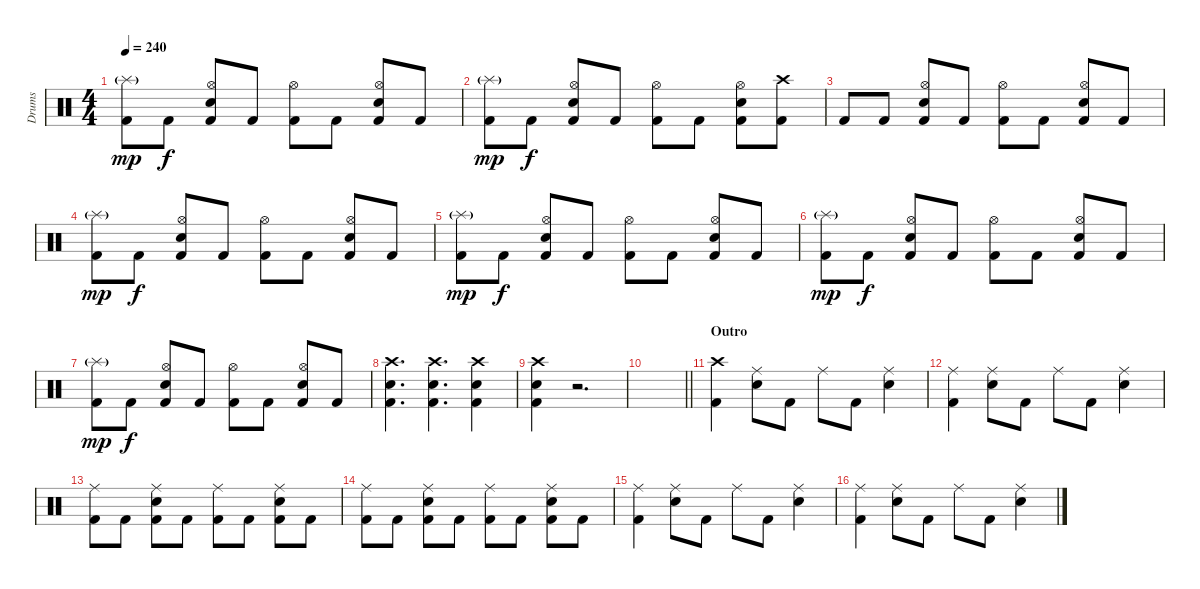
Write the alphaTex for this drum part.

\track ("Drums" "Drums") {instrument percussion}
\staff {score}
\articulation defaults
\ts (4 4)
\tempo 240
\clef neutral
\ks c
("Splash (hit)"{g} "Kick (hit) 2").8{dy mp} "Kick (hit) 2".8{dy f} ("Hi-Hat (open)" "Snare (hit) 2" "Kick (hit) 2").8 "Kick (hit) 2".8 ("Hi-Hat (open)" "Kick (hit) 2").8 "Kick (hit) 2".8 ("Hi-Hat (open)" "Snare (hit) 2" "Kick (hit) 2").8 "Kick (hit) 2".8 |
("Splash (hit)"{g} "Kick (hit) 2").8{dy mp} "Kick (hit) 2".8{dy f} ("Hi-Hat (open)" "Snare (hit) 2" "Kick (hit) 2").8 "Kick (hit) 2".8 ("Hi-Hat (open)" "Kick (hit) 2").8 "Kick (hit) 2".8 ("Hi-Hat (open)" "Snare (hit) 2" "Kick (hit) 2").8 ("Crash high (hit)" "Kick (hit) 2").8 |
"Kick (hit) 2".8 "Kick (hit) 2".8 ("Hi-Hat (open)" "Snare (hit) 2" "Kick (hit) 2").8 "Kick (hit) 2".8 ("Hi-Hat (open)" "Kick (hit) 2").8 "Kick (hit) 2".8 ("Hi-Hat (open)" "Snare (hit) 2" "Kick (hit) 2").8 "Kick (hit) 2".8 |
("Splash (hit)"{g} "Kick (hit) 2").8{dy mp} "Kick (hit) 2".8{dy f} ("Hi-Hat (open)" "Snare (hit) 2" "Kick (hit) 2").8 "Kick (hit) 2".8 ("Hi-Hat (open)" "Kick (hit) 2").8 "Kick (hit) 2".8 ("Hi-Hat (open)" "Snare (hit) 2" "Kick (hit) 2").8 "Kick (hit) 2".8 |
("Splash (hit)"{g} "Kick (hit) 2").8{dy mp} "Kick (hit) 2".8{dy f} ("Hi-Hat (open)" "Snare (hit) 2" "Kick (hit) 2").8 "Kick (hit) 2".8 ("Hi-Hat (open)" "Kick (hit) 2").8 "Kick (hit) 2".8 ("Hi-Hat (open)" "Snare (hit) 2" "Kick (hit) 2").8 "Kick (hit) 2".8 |
("Splash (hit)"{g} "Kick (hit) 2").8{dy mp} "Kick (hit) 2".8{dy f} ("Hi-Hat (open)" "Snare (hit) 2" "Kick (hit) 2").8 "Kick (hit) 2".8 ("Hi-Hat (open)" "Kick (hit) 2").8 "Kick (hit) 2".8 ("Hi-Hat (open)" "Snare (hit) 2" "Kick (hit) 2").8 "Kick (hit) 2".8 |
("Splash (hit)"{g} "Kick (hit) 2").8{dy mp} "Kick (hit) 2".8{dy f} ("Hi-Hat (open)" "Snare (hit) 2" "Kick (hit) 2").8 "Kick (hit) 2".8 ("Hi-Hat (open)" "Kick (hit) 2").8 "Kick (hit) 2".8 ("Hi-Hat (open)" "Snare (hit) 2" "Kick (hit) 2").8 "Kick (hit) 2".8 |
("Crash high (hit)" "Snare (hit) 2" "Kick (hit) 2").4{d} ("Crash high (hit)" "Snare (hit) 2" "Kick (hit) 2").4{d} ("Crash high (hit)" "Snare (hit) 2" "Kick (hit) 2").4 |
("Crash high (hit)" "Snare (hit) 2" "Kick (hit) 2").4 r.2{d} |
\barLineRight lightlight
|
\section ("" "Outro")
("Crash high (hit)" "Kick (hit) 2").4 ("Ride (middle)" "Snare (hit) 2").8 "Kick (hit) 2".8 "Ride (middle)".8 "Kick (hit) 2".8 ("Ride (middle)" "Snare (hit) 2").4 |
("Ride (middle)" "Kick (hit) 2").4 ("Ride (middle)" "Snare (hit) 2").8 "Kick (hit) 2".8 "Ride (middle)".8 "Kick (hit) 2".8 ("Ride (middle)" "Snare (hit) 2").4 |
("Ride (middle)" "Kick (hit) 2").8 "Kick (hit) 2".8 ("Ride (middle)" "Snare (hit) 2" "Kick (hit) 2").8 "Kick (hit) 2".8 ("Ride (middle)" "Kick (hit) 2").8 "Kick (hit) 2".8 ("Ride (middle)" "Snare (hit) 2" "Kick (hit) 2").8 "Kick (hit) 2".8 |
("Ride (middle)" "Kick (hit) 2").8 "Kick (hit) 2".8 ("Ride (middle)" "Snare (hit) 2" "Kick (hit) 2").8 "Kick (hit) 2".8 ("Ride (middle)" "Kick (hit) 2").8 "Kick (hit) 2".8 ("Ride (middle)" "Snare (hit) 2" "Kick (hit) 2").8 "Kick (hit) 2".8 |
("Ride (middle)" "Kick (hit) 2").4 ("Ride (middle)" "Snare (hit) 2").8 "Kick (hit) 2".8 "Ride (middle)".8 "Kick (hit) 2".8 ("Ride (middle)" "Snare (hit) 2").4 |
("Ride (middle)" "Kick (hit) 2").4 ("Ride (middle)" "Snare (hit) 2").8 "Kick (hit) 2".8 "Ride (middle)".8 "Kick (hit) 2".8 ("Ride (middle)" "Snare (hit) 2").4
